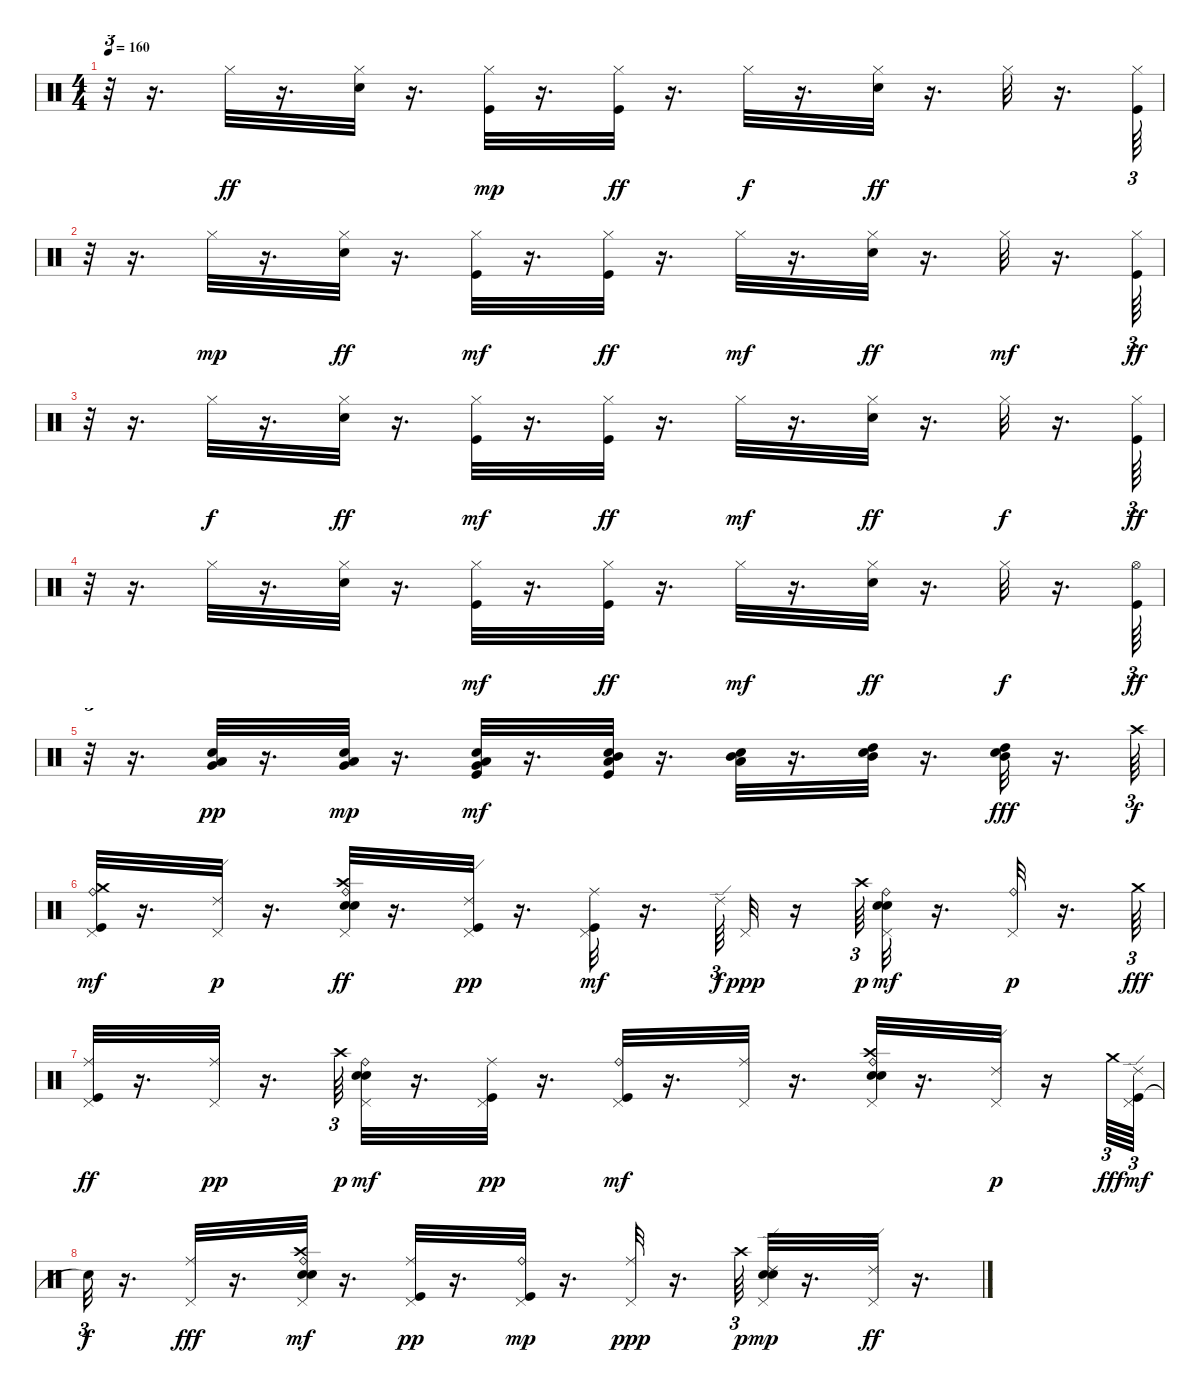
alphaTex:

\track "" {instrument percussion}
\staff {score}
\articulation defaults
\ts (4 4)
\tempo 160
\clef neutral
\ks c
r.32{tu (3 2) dy ff} r.16{d} "Hi-Hat (closed)".32 r.16{d} ("Hi-Hat (closed)" "Electric Snare (hit)").32 r.16{d} ("Kick (hit)" "Hi-Hat (closed)").32{dy mp} r.16{d} ("Kick (hit)" "Hi-Hat (closed)").32{dy ff} r.16{d} "Hi-Hat (closed)".32{dy f} r.16{d} ("Hi-Hat (closed)" "Electric Snare (hit)").32{dy ff} r.16{d} "Hi-Hat (closed)".32 r.16{d} ("Kick (hit)" "Hi-Hat (closed)").64{tu (3 2)} |
r.32{tu (3 2)} r.16{d} "Hi-Hat (closed)".32{dy mp} r.16{d} ("Hi-Hat (closed)" "Electric Snare (hit)").32{dy ff} r.16{d} ("Kick (hit)" "Hi-Hat (closed)").32{dy mf} r.16{d} ("Kick (hit)" "Hi-Hat (closed)").32{dy ff} r.16{d} "Hi-Hat (closed)".32{dy mf} r.16{d} ("Hi-Hat (closed)" "Electric Snare (hit)").32{dy ff} r.16{d} "Hi-Hat (closed)".32{dy mf} r.16{d} ("Kick (hit)" "Hi-Hat (closed)").64{tu (3 2) dy ff} |
r.32{tu (3 2)} r.16{d} "Hi-Hat (closed)".32{dy f} r.16{d} ("Hi-Hat (closed)" "Electric Snare (hit)").32{dy ff} r.16{d} ("Kick (hit)" "Hi-Hat (closed)").32{dy mf} r.16{d} ("Kick (hit)" "Hi-Hat (closed)").32{dy ff} r.16{d} "Hi-Hat (closed)".32{dy mf} r.16{d} ("Hi-Hat (closed)" "Electric Snare (hit)").32{dy ff} r.16{d} "Hi-Hat (closed)".32{dy f} r.16{d} ("Kick (hit)" "Hi-Hat (closed)").64{tu (3 2) dy ff} |
r.32{tu (3 2)} r.16{d} "Hi-Hat (closed)".32 r.16{d} ("Hi-Hat (closed)" "Electric Snare (hit)").32 r.16{d} ("Kick (hit)" "Hi-Hat (closed)").32{dy mf} r.16{d} ("Kick (hit)" "Hi-Hat (closed)").32{dy ff} r.16{d} "Hi-Hat (closed)".32{dy mf} r.16{d} ("Hi-Hat (closed)" "Electric Snare (hit)").32{dy ff} r.16{d} "Hi-Hat (closed)".32{dy f} r.16{d} ("Kick (hit)" "Hi-Hat (open)").64{tu (3 2) dy ff} |
r.32{tu (3 2)} r.16{d} ("Electric Snare (hit)" "Low Tom (hit)" "Very Low Tom (hit)").32{dy pp} r.16{d} ("Electric Snare (hit)" "Low Tom (hit)" "Very Low Tom (hit)").32{dy mp} r.16{d} ("Kick (hit)" "Electric Snare (hit)" "Low Tom (hit)" "Very Low Tom (hit)").32{dy mf} r.16{d} ("Kick (hit)" "Electric Snare (hit)" "Mid Tom (hit)" "Low Tom (hit)").32 r.16{d} ("Electric Snare (hit)" "Mid Tom (hit)" "Low Tom (hit)").32 r.16{d} ("Electric Snare (hit)" "High Tom (hit)" "Mid Tom (hit)").32 r.16{d} ("Electric Snare (hit)" "High Tom (hit)" "Mid Tom (hit)").32{dy fff} r.16{d} "Crash high (hit)".64{tu (3 2) dy f} |
("Crash medium (hit)" "Kick (hit)" "Ride (bell)" "Pedal Hi-Hat (hit)").32{dy mf} r.16{d} ("Ride (edge) 2" "Pedal Hi-Hat (hit)").32{dy p} r.16{d} ("Electric Snare (hit)" "Crash high (hit)" "Snare (hit) 2" "Ride (bell)" "Pedal Hi-Hat (hit)").32{dy ff} r.16{d} ("Kick (hit)" "Ride (edge) 2" "Pedal Hi-Hat (hit)").32{dy pp} r.16{d} ("Kick (hit)" "Ride (middle)" "Pedal Hi-Hat (hit)").32{dy mf} r.16{d} "Ride (edge) 2".64{tu (3 2) dy f} "Pedal Hi-Hat (hit)".32{dy ppp} r.16 "Crash high (hit)".64{tu (3 2) dy p} ("Electric Snare (hit)" "Snare (hit) 2" "Ride (bell)" "Pedal Hi-Hat (hit)").32{dy mf} r.16{d} ("Ride (bell)" "Pedal Hi-Hat (hit)").32{dy p} r.16{d} "Crash medium (hit)".64{tu (3 2) dy fff} |
("Kick (hit)" "Ride (middle)" "Pedal Hi-Hat (hit)").32{dy ff} r.16{d} ("Ride (middle)" "Pedal Hi-Hat (hit)").32{dy pp} r.16{d} "Crash high (hit)".64{tu (3 2) dy p} ("Electric Snare (hit)" "Snare (hit) 2" "Ride (bell)" "Pedal Hi-Hat (hit)").32{dy mf} r.16{d} ("Kick (hit)" "Ride (middle)" "Pedal Hi-Hat (hit)").32{dy pp} r.16{d} ("Kick (hit)" "Ride (bell)" "Pedal Hi-Hat (hit)").32{dy mf} r.16{d} ("Pedal Hi-Hat (hit)" "Ride (middle)").32 r.16{d} ("Electric Snare (hit)" "Crash high (hit)" "Snare (hit) 2" "Ride (bell)" "Pedal Hi-Hat (hit)").32 r.16{d} ("Ride (edge) 2" "Pedal Hi-Hat (hit)").32{dy p} r.16 "Crash medium (hit)".64{tu (3 2) dy fff} ("Kick (hit)" "Ride (edge) 2" "Pedal Hi-Hat (hit)").64{tu (3 2) dy mf} |
"Snare (hit)"{t}.32{tu (3 2) dy f} r.16{d} ("Pedal Hi-Hat (hit)" "Ride (middle)").32{dy fff} r.16{d} ("Electric Snare (hit)" "Crash high (hit)" "Snare (hit) 2" "Ride (bell)" "Pedal Hi-Hat (hit)").32{dy mf} r.16{d} ("Kick (hit)" "Ride (middle)" "Pedal Hi-Hat (hit)").32{dy pp} r.16{d} ("Kick (hit)" "Ride (bell)" "Pedal Hi-Hat (hit)").32{dy mp} r.16{d} ("Ride (middle)" "Pedal Hi-Hat (hit)").32{dy ppp} r.16{d} "Crash high (hit)".64{tu (3 2) dy p} ("Electric Snare (hit)" "Snare (hit) 2" "Ride (edge) 2" "Pedal Hi-Hat (hit)").32{dy mp} r.16{d} ("Pedal Hi-Hat (hit)" "Ride (edge) 2").32{dy ff} r.16{d}
